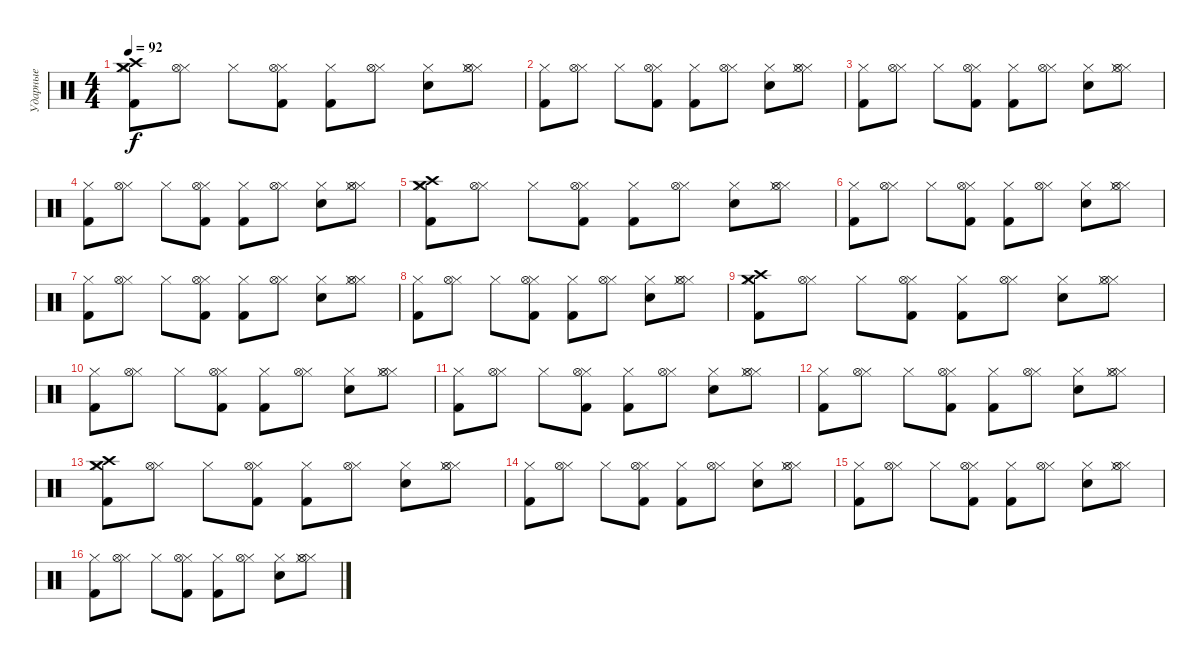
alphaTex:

\track ("Ударные" "Ударные") {instrument percussion}
\staff {score}
\articulation defaults
\ts (4 4)
\tempo 92
\clef neutral
\ks c
("Kick (hit) 2" "Hi-Hat (closed)" "Crash high (hit)" "Crash medium (hit)").8{dy f} ("Hi-Hat (closed)" "Hi-Hat (open)").8 "Hi-Hat (closed)".8 ("Kick (hit) 2" "Hi-Hat (closed)" "Hi-Hat (open)").8 ("Kick (hit) 2" "Hi-Hat (closed)").8 ("Hi-Hat (closed)" "Hi-Hat (open)").8 ("Snare (hit) 2" "Hi-Hat (closed)").8 ("Hi-Hat (closed)" "Hi-Hat (closed)" "Hi-Hat (open)").8 |
("Kick (hit) 2" "Hi-Hat (closed)").8 ("Hi-Hat (closed)" "Hi-Hat (open)").8 "Hi-Hat (closed)".8 ("Kick (hit) 2" "Hi-Hat (closed)" "Hi-Hat (open)").8 ("Kick (hit) 2" "Hi-Hat (closed)").8 ("Hi-Hat (closed)" "Hi-Hat (open)").8 ("Snare (hit) 2" "Hi-Hat (closed)").8 ("Hi-Hat (closed)" "Hi-Hat (closed)" "Hi-Hat (open)").8 |
("Kick (hit) 2" "Hi-Hat (closed)").8 ("Hi-Hat (closed)" "Hi-Hat (open)").8 "Hi-Hat (closed)".8 ("Kick (hit) 2" "Hi-Hat (closed)" "Hi-Hat (open)").8 ("Kick (hit) 2" "Hi-Hat (closed)").8 ("Hi-Hat (closed)" "Hi-Hat (open)").8 ("Snare (hit) 2" "Hi-Hat (closed)").8 ("Hi-Hat (closed)" "Hi-Hat (closed)" "Hi-Hat (open)").8 |
("Kick (hit) 2" "Hi-Hat (closed)").8 ("Hi-Hat (closed)" "Hi-Hat (open)").8 "Hi-Hat (closed)".8 ("Kick (hit) 2" "Hi-Hat (closed)" "Hi-Hat (open)").8 ("Kick (hit) 2" "Hi-Hat (closed)").8 ("Hi-Hat (closed)" "Hi-Hat (open)").8 ("Snare (hit) 2" "Hi-Hat (closed)").8 ("Hi-Hat (closed)" "Hi-Hat (closed)" "Hi-Hat (open)").8 |
("Kick (hit) 2" "Hi-Hat (closed)" "Crash high (hit)" "Crash medium (hit)").8 ("Hi-Hat (closed)" "Hi-Hat (open)").8 "Hi-Hat (closed)".8 ("Kick (hit) 2" "Hi-Hat (closed)" "Hi-Hat (open)").8 ("Kick (hit) 2" "Hi-Hat (closed)").8 ("Hi-Hat (closed)" "Hi-Hat (open)").8 ("Snare (hit) 2" "Hi-Hat (closed)").8 ("Hi-Hat (closed)" "Hi-Hat (closed)" "Hi-Hat (open)").8 |
("Kick (hit) 2" "Hi-Hat (closed)").8 ("Hi-Hat (closed)" "Hi-Hat (open)").8 "Hi-Hat (closed)".8 ("Kick (hit) 2" "Hi-Hat (closed)" "Hi-Hat (open)").8 ("Kick (hit) 2" "Hi-Hat (closed)").8 ("Hi-Hat (closed)" "Hi-Hat (open)").8 ("Snare (hit) 2" "Hi-Hat (closed)").8 ("Hi-Hat (closed)" "Hi-Hat (closed)" "Hi-Hat (open)").8 |
("Kick (hit) 2" "Hi-Hat (closed)").8 ("Hi-Hat (closed)" "Hi-Hat (open)").8 "Hi-Hat (closed)".8 ("Kick (hit) 2" "Hi-Hat (closed)" "Hi-Hat (open)").8 ("Kick (hit) 2" "Hi-Hat (closed)").8 ("Hi-Hat (closed)" "Hi-Hat (open)").8 ("Snare (hit) 2" "Hi-Hat (closed)").8 ("Hi-Hat (closed)" "Hi-Hat (closed)" "Hi-Hat (open)").8 |
("Kick (hit) 2" "Hi-Hat (closed)").8 ("Hi-Hat (closed)" "Hi-Hat (open)").8 "Hi-Hat (closed)".8 ("Kick (hit) 2" "Hi-Hat (closed)" "Hi-Hat (open)").8 ("Kick (hit) 2" "Hi-Hat (closed)").8 ("Hi-Hat (closed)" "Hi-Hat (open)").8 ("Snare (hit) 2" "Hi-Hat (closed)").8 ("Hi-Hat (closed)" "Hi-Hat (closed)" "Hi-Hat (open)").8 |
("Kick (hit) 2" "Hi-Hat (closed)" "Crash medium (hit)" "Crash high (hit)").8 ("Hi-Hat (closed)" "Hi-Hat (open)").8 "Hi-Hat (closed)".8 ("Kick (hit) 2" "Hi-Hat (closed)" "Hi-Hat (open)").8 ("Kick (hit) 2" "Hi-Hat (closed)").8 ("Hi-Hat (closed)" "Hi-Hat (open)").8 ("Snare (hit) 2" "Hi-Hat (closed)").8 ("Hi-Hat (closed)" "Hi-Hat (closed)" "Hi-Hat (open)").8 |
("Kick (hit) 2" "Hi-Hat (closed)").8 ("Hi-Hat (closed)" "Hi-Hat (open)").8 "Hi-Hat (closed)".8 ("Kick (hit) 2" "Hi-Hat (closed)" "Hi-Hat (open)").8 ("Kick (hit) 2" "Hi-Hat (closed)").8 ("Hi-Hat (closed)" "Hi-Hat (open)").8 ("Snare (hit) 2" "Hi-Hat (closed)").8 ("Hi-Hat (closed)" "Hi-Hat (closed)" "Hi-Hat (open)").8 |
("Kick (hit) 2" "Hi-Hat (closed)").8 ("Hi-Hat (closed)" "Hi-Hat (open)").8 "Hi-Hat (closed)".8 ("Kick (hit) 2" "Hi-Hat (closed)" "Hi-Hat (open)").8 ("Kick (hit) 2" "Hi-Hat (closed)").8 ("Hi-Hat (closed)" "Hi-Hat (open)").8 ("Snare (hit) 2" "Hi-Hat (closed)").8 ("Hi-Hat (closed)" "Hi-Hat (closed)" "Hi-Hat (open)").8 |
("Kick (hit) 2" "Hi-Hat (closed)").8 ("Hi-Hat (closed)" "Hi-Hat (open)").8 "Hi-Hat (closed)".8 ("Kick (hit) 2" "Hi-Hat (closed)" "Hi-Hat (open)").8 ("Kick (hit) 2" "Hi-Hat (closed)").8 ("Hi-Hat (closed)" "Hi-Hat (open)").8 ("Snare (hit) 2" "Hi-Hat (closed)").8 ("Hi-Hat (closed)" "Hi-Hat (closed)" "Hi-Hat (open)").8 |
("Kick (hit) 2" "Hi-Hat (closed)" "Crash high (hit)" "Crash medium (hit)").8 ("Hi-Hat (closed)" "Hi-Hat (open)").8 "Hi-Hat (closed)".8 ("Kick (hit) 2" "Hi-Hat (closed)" "Hi-Hat (open)").8 ("Kick (hit) 2" "Hi-Hat (closed)").8 ("Hi-Hat (closed)" "Hi-Hat (open)").8 ("Snare (hit) 2" "Hi-Hat (closed)").8 ("Hi-Hat (closed)" "Hi-Hat (closed)" "Hi-Hat (open)").8 |
("Kick (hit) 2" "Hi-Hat (closed)").8 ("Hi-Hat (closed)" "Hi-Hat (open)").8 "Hi-Hat (closed)".8 ("Kick (hit) 2" "Hi-Hat (closed)" "Hi-Hat (open)").8 ("Kick (hit) 2" "Hi-Hat (closed)").8 ("Hi-Hat (closed)" "Hi-Hat (open)").8 ("Snare (hit) 2" "Hi-Hat (closed)").8 ("Hi-Hat (closed)" "Hi-Hat (closed)" "Hi-Hat (open)").8 |
("Kick (hit) 2" "Hi-Hat (closed)").8 ("Hi-Hat (closed)" "Hi-Hat (open)").8 "Hi-Hat (closed)".8 ("Kick (hit) 2" "Hi-Hat (closed)" "Hi-Hat (open)").8 ("Kick (hit) 2" "Hi-Hat (closed)").8 ("Hi-Hat (closed)" "Hi-Hat (open)").8 ("Snare (hit) 2" "Hi-Hat (closed)").8 ("Hi-Hat (closed)" "Hi-Hat (closed)" "Hi-Hat (open)").8 |
("Kick (hit) 2" "Hi-Hat (closed)").8 ("Hi-Hat (closed)" "Hi-Hat (open)").8 "Hi-Hat (closed)".8 ("Kick (hit) 2" "Hi-Hat (closed)" "Hi-Hat (open)").8 ("Kick (hit) 2" "Hi-Hat (closed)").8 ("Hi-Hat (closed)" "Hi-Hat (open)").8 ("Snare (hit) 2" "Hi-Hat (closed)").8 ("Hi-Hat (closed)" "Hi-Hat (closed)" "Hi-Hat (open)").8
